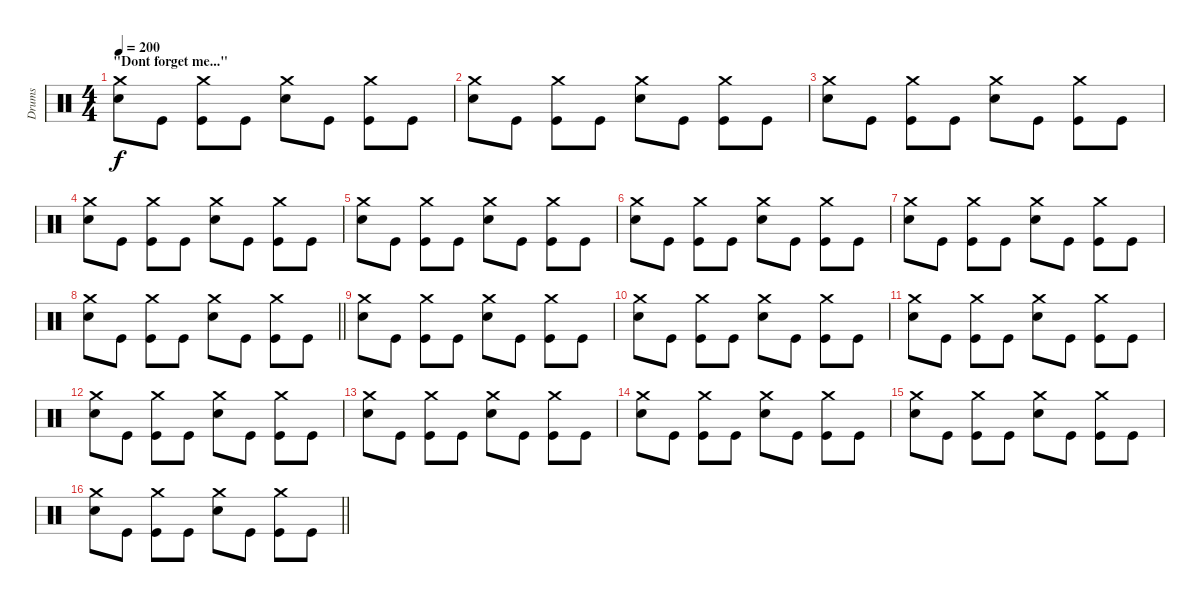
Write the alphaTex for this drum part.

\track ("Drums" "Drums") {instrument percussion}
\staff {score}
\articulation defaults
\ts (4 4)
\section ("" "\"Dont forget me...\"")
\tempo 200
\clef neutral
\ks c
("Crash medium (hit)" "Electric Snare (hit)").8{dy f} "Kick (hit)".8 ("Crash medium (hit)" "Kick (hit)").8 "Kick (hit)".8 ("Crash medium (hit)" "Electric Snare (hit)").8 "Kick (hit)".8 ("Crash medium (hit)" "Kick (hit)").8 "Kick (hit)".8 |
("Crash medium (hit)" "Electric Snare (hit)").8 "Kick (hit)".8 ("Crash medium (hit)" "Kick (hit)").8 "Kick (hit)".8 ("Crash medium (hit)" "Electric Snare (hit)").8 "Kick (hit)".8 ("Crash medium (hit)" "Kick (hit)").8 "Kick (hit)".8 |
("Crash medium (hit)" "Electric Snare (hit)").8 "Kick (hit)".8 ("Crash medium (hit)" "Kick (hit)").8 "Kick (hit)".8 ("Crash medium (hit)" "Electric Snare (hit)").8 "Kick (hit)".8 ("Crash medium (hit)" "Kick (hit)").8 "Kick (hit)".8 |
("Crash medium (hit)" "Electric Snare (hit)").8 "Kick (hit)".8 ("Crash medium (hit)" "Kick (hit)").8 "Kick (hit)".8 ("Crash medium (hit)" "Electric Snare (hit)").8 "Kick (hit)".8 ("Crash medium (hit)" "Kick (hit)").8 "Kick (hit)".8 |
("Crash medium (hit)" "Electric Snare (hit)").8 "Kick (hit)".8 ("Crash medium (hit)" "Kick (hit)").8 "Kick (hit)".8 ("Crash medium (hit)" "Electric Snare (hit)").8 "Kick (hit)".8 ("Crash medium (hit)" "Kick (hit)").8 "Kick (hit)".8 |
("Crash medium (hit)" "Electric Snare (hit)").8 "Kick (hit)".8 ("Crash medium (hit)" "Kick (hit)").8 "Kick (hit)".8 ("Crash medium (hit)" "Electric Snare (hit)").8 "Kick (hit)".8 ("Crash medium (hit)" "Kick (hit)").8 "Kick (hit)".8 |
("Crash medium (hit)" "Electric Snare (hit)").8 "Kick (hit)".8 ("Crash medium (hit)" "Kick (hit)").8 "Kick (hit)".8 ("Crash medium (hit)" "Electric Snare (hit)").8 "Kick (hit)".8 ("Crash medium (hit)" "Kick (hit)").8 "Kick (hit)".8 |
\barLineRight lightlight
("Crash medium (hit)" "Electric Snare (hit)").8 "Kick (hit)".8 ("Crash medium (hit)" "Kick (hit)").8 "Kick (hit)".8 ("Crash medium (hit)" "Electric Snare (hit)").8 "Kick (hit)".8 ("Crash medium (hit)" "Kick (hit)").8 "Kick (hit)".8 |
("Crash medium (hit)" "Electric Snare (hit)").8 "Kick (hit)".8 ("Crash medium (hit)" "Kick (hit)").8 "Kick (hit)".8 ("Crash medium (hit)" "Electric Snare (hit)").8 "Kick (hit)".8 ("Crash medium (hit)" "Kick (hit)").8 "Kick (hit)".8 |
("Crash medium (hit)" "Electric Snare (hit)").8 "Kick (hit)".8 ("Crash medium (hit)" "Kick (hit)").8 "Kick (hit)".8 ("Crash medium (hit)" "Electric Snare (hit)").8 "Kick (hit)".8 ("Crash medium (hit)" "Kick (hit)").8 "Kick (hit)".8 |
("Crash medium (hit)" "Electric Snare (hit)").8 "Kick (hit)".8 ("Crash medium (hit)" "Kick (hit)").8 "Kick (hit)".8 ("Crash medium (hit)" "Electric Snare (hit)").8 "Kick (hit)".8 ("Crash medium (hit)" "Kick (hit)").8 "Kick (hit)".8 |
("Crash medium (hit)" "Electric Snare (hit)").8 "Kick (hit)".8 ("Crash medium (hit)" "Kick (hit)").8 "Kick (hit)".8 ("Crash medium (hit)" "Electric Snare (hit)").8 "Kick (hit)".8 ("Crash medium (hit)" "Kick (hit)").8 "Kick (hit)".8 |
("Crash medium (hit)" "Electric Snare (hit)").8 "Kick (hit)".8 ("Crash medium (hit)" "Kick (hit)").8 "Kick (hit)".8 ("Crash medium (hit)" "Electric Snare (hit)").8 "Kick (hit)".8 ("Crash medium (hit)" "Kick (hit)").8 "Kick (hit)".8 |
("Crash medium (hit)" "Electric Snare (hit)").8 "Kick (hit)".8 ("Crash medium (hit)" "Kick (hit)").8 "Kick (hit)".8 ("Crash medium (hit)" "Electric Snare (hit)").8 "Kick (hit)".8 ("Crash medium (hit)" "Kick (hit)").8 "Kick (hit)".8 |
("Crash medium (hit)" "Electric Snare (hit)").8 "Kick (hit)".8 ("Crash medium (hit)" "Kick (hit)").8 "Kick (hit)".8 ("Crash medium (hit)" "Electric Snare (hit)").8 "Kick (hit)".8 ("Crash medium (hit)" "Kick (hit)").8 "Kick (hit)".8 |
\barLineRight lightlight
("Crash medium (hit)" "Electric Snare (hit)").8 "Kick (hit)".8 ("Crash medium (hit)" "Kick (hit)").8 "Kick (hit)".8 ("Crash medium (hit)" "Electric Snare (hit)").8 "Kick (hit)".8 ("Crash medium (hit)" "Kick (hit)").8 "Kick (hit)".8
